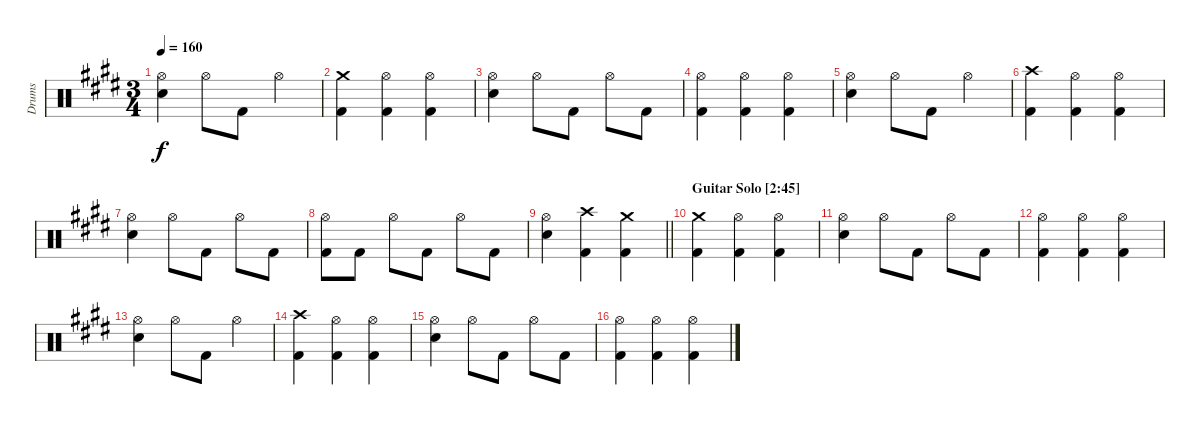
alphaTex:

\track ("Drums" "Drums") {instrument percussion}
\staff {score}
\articulation defaults
\ts (3 4)
\tempo 160
\clef neutral
\ks c#minor
("Hi-Hat (open)" "Snare (hit) 2").4{dy f} "Hi-Hat (open)".8 "Kick (hit) 2".8 "Hi-Hat (open)".4 |
("Crash medium (hit)" "Kick (hit) 2").4 ("Hi-Hat (open)" "Kick (hit) 2").4 ("Hi-Hat (open)" "Kick (hit) 2").4 |
("Hi-Hat (open)" "Snare (hit) 2").4 "Hi-Hat (open)".8 "Kick (hit) 2".8 "Hi-Hat (open)".8 "Kick (hit) 2".8 |
("Hi-Hat (open)" "Kick (hit) 2").4 ("Hi-Hat (open)" "Kick (hit) 2").4 ("Hi-Hat (open)" "Kick (hit) 2").4 |
("Hi-Hat (open)" "Snare (hit) 2").4 "Hi-Hat (open)".8 "Kick (hit) 2".8 "Hi-Hat (open)".4 |
("Crash high (hit)" "Kick (hit) 2").4 ("Hi-Hat (open)" "Kick (hit) 2").4 ("Hi-Hat (open)" "Kick (hit) 2").4 |
("Hi-Hat (open)" "Snare (hit) 2").4 "Hi-Hat (open)".8 "Kick (hit) 2".8 "Hi-Hat (open)".8 "Kick (hit) 2".8 |
("Hi-Hat (open)" "Kick (hit) 2").8 "Kick (hit) 2".8 "Hi-Hat (open)".8 "Kick (hit) 2".8 "Hi-Hat (open)".8 "Kick (hit) 2".8 |
\barLineRight lightlight
("Hi-Hat (open)" "Snare (hit) 2").4 ("Crash high (hit)" "Kick (hit) 2").4 ("Crash medium (hit)" "Kick (hit) 2").4 |
\section ("" "Guitar Solo [2:45]")
("Crash medium (hit)" "Kick (hit) 2").4 ("Hi-Hat (open)" "Kick (hit) 2").4 ("Hi-Hat (open)" "Kick (hit) 2").4 |
("Hi-Hat (open)" "Snare (hit) 2").4 "Hi-Hat (open)".8 "Kick (hit) 2".8 "Hi-Hat (open)".8 "Kick (hit) 2".8 |
("Hi-Hat (open)" "Kick (hit) 2").4 ("Hi-Hat (open)" "Kick (hit) 2").4 ("Hi-Hat (open)" "Kick (hit) 2").4 |
("Hi-Hat (open)" "Snare (hit) 2").4 "Hi-Hat (open)".8 "Kick (hit) 2".8 "Hi-Hat (open)".4 |
("Crash high (hit)" "Kick (hit) 2").4 ("Hi-Hat (open)" "Kick (hit) 2").4 ("Hi-Hat (open)" "Kick (hit) 2").4 |
("Hi-Hat (open)" "Snare (hit) 2").4 "Hi-Hat (open)".8 "Kick (hit) 2".8 "Hi-Hat (open)".8 "Kick (hit) 2".8 |
("Hi-Hat (open)" "Kick (hit) 2").4 ("Hi-Hat (open)" "Kick (hit) 2").4 ("Hi-Hat (open)" "Kick (hit) 2").4
